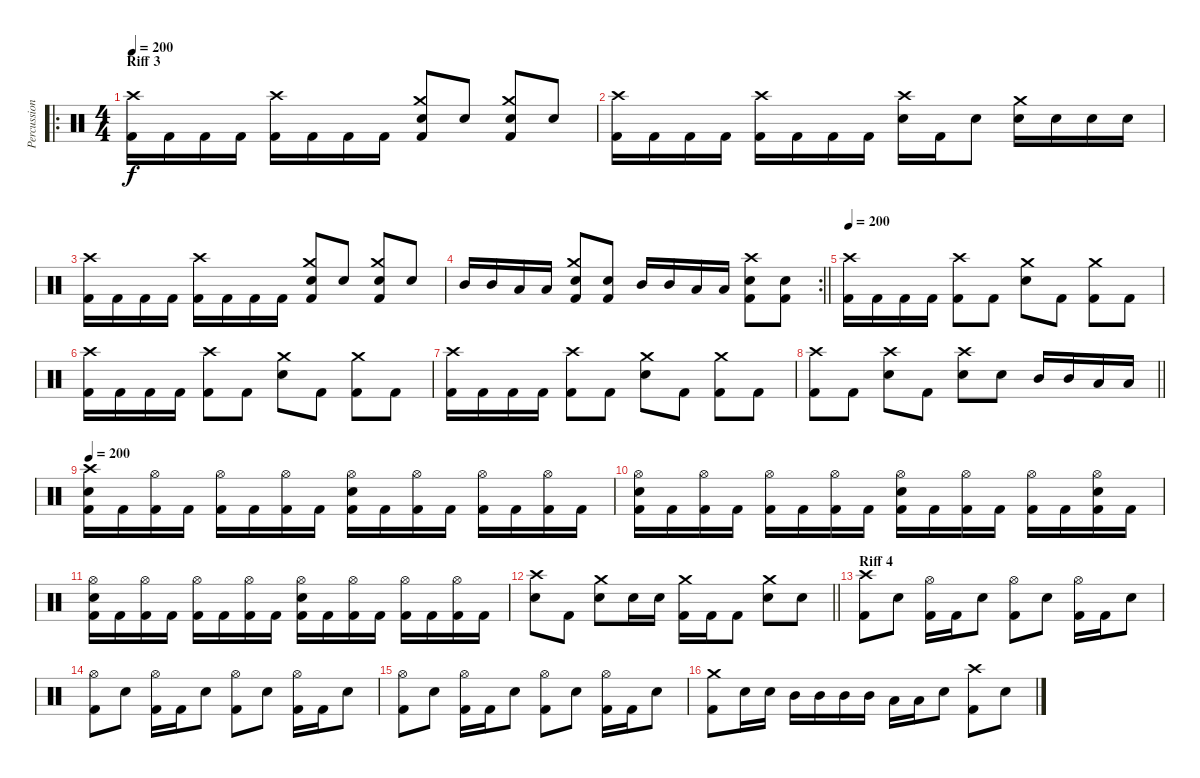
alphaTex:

\track ("Percussion" "Percussion") {instrument percussion}
\staff {score}
\articulation defaults
\ro
\ts (4 4)
\section ("" "Riff 3")
\tempo 200
\clef neutral
\ks c
("Crash high (hit)" "Kick (hit) 2").16{dy f} "Kick (hit) 2".16 "Kick (hit) 2".16 "Kick (hit) 2".16 ("Crash high (hit)" "Kick (hit) 2").16 "Kick (hit) 2".16 "Kick (hit) 2".16 "Kick (hit) 2".16 ("Crash medium (hit)" "Electric Snare (hit)" "Kick (hit) 2").8 "Electric Snare (hit)".8 ("Crash medium (hit)" "Electric Snare (hit)" "Kick (hit) 2").8 "Electric Snare (hit)".8 |
("Crash high (hit)" "Kick (hit) 2").16 "Kick (hit) 2".16 "Kick (hit) 2".16 "Kick (hit) 2".16 ("Crash high (hit)" "Kick (hit) 2").16 "Kick (hit) 2".16 "Kick (hit) 2".16 "Kick (hit) 2".16 ("Crash high (hit)" "Electric Snare (hit)").16 "Kick (hit) 2".16 "Electric Snare (hit)".8 ("Crash medium (hit)" "Electric Snare (hit)").16 "Electric Snare (hit)".16 "Electric Snare (hit)".16 "Electric Snare (hit)".16 |
("Crash high (hit)" "Kick (hit) 2").16 "Kick (hit) 2".16 "Kick (hit) 2".16 "Kick (hit) 2".16 ("Crash high (hit)" "Kick (hit) 2").16 "Kick (hit) 2".16 "Kick (hit) 2".16 "Kick (hit) 2".16 ("Crash medium (hit)" "Electric Snare (hit)" "Kick (hit) 2").8 "Electric Snare (hit)".8 ("Crash medium (hit)" "Electric Snare (hit)" "Kick (hit) 2").8 "Electric Snare (hit)".8 |
\rc 2
\barLineRight lightlight "Mid Tom (hit)".16 "Mid Tom (hit)".16 "Low Tom (hit)".16 "Low Tom (hit)".16
("Crash medium (hit)" "Electric Snare (hit)" "Kick (hit) 2").8 ("Electric Snare (hit)" "Kick (hit) 2").8 "Mid Tom (hit)".16 "Mid Tom (hit)".16 "Low Tom (hit)".16 "Low Tom (hit)".16 ("Crash high (hit)" "Electric Snare (hit)" "Kick (hit) 2").8 ("Electric Snare (hit)" "Kick (hit) 2").8 |
\tempo 200
("Crash high (hit)" "Kick (hit) 2").16 "Kick (hit) 2".16 "Kick (hit) 2".16 "Kick (hit) 2".16 ("Crash high (hit)" "Kick (hit) 2").8 "Kick (hit) 2".8 ("Crash medium (hit)" "Electric Snare (hit)").8 "Kick (hit) 2".8 ("Crash medium (hit)" "Kick (hit) 2").8 "Kick (hit) 2".8 |
("Crash high (hit)" "Kick (hit) 2").16 "Kick (hit) 2".16 "Kick (hit) 2".16 "Kick (hit) 2".16 ("Crash high (hit)" "Kick (hit) 2").8 "Kick (hit) 2".8 ("Crash medium (hit)" "Electric Snare (hit)").8 "Kick (hit) 2".8 ("Crash medium (hit)" "Kick (hit) 2").8 "Kick (hit) 2".8 |
("Crash high (hit)" "Kick (hit) 2").16 "Kick (hit) 2".16 "Kick (hit) 2".16 "Kick (hit) 2".16 ("Crash high (hit)" "Kick (hit) 2").8 "Kick (hit) 2".8 ("Crash medium (hit)" "Electric Snare (hit)").8 "Kick (hit) 2".8 ("Crash medium (hit)" "Kick (hit) 2").8 "Kick (hit) 2".8 |
\barLineRight lightlight
("Crash high (hit)" "Kick (hit) 2").8 "Kick (hit) 2".8 ("Crash high (hit)" "Electric Snare (hit)").8 "Kick (hit) 2".8 ("Crash high (hit)" "Electric Snare (hit)").8 "Electric Snare (hit)".8 "Mid Tom (hit)".16 "Mid Tom (hit)".16 "Low Tom (hit)".16 "Low Tom (hit)".16 |
\tempo 200
("Crash high (hit)" "Electric Snare (hit)" "Kick (hit) 2").16 "Kick (hit) 2".16 ("Hi-Hat (open)" "Kick (hit) 2").16 "Kick (hit) 2".16 ("Hi-Hat (open)" "Kick (hit) 2").16 "Kick (hit) 2".16 ("Hi-Hat (open)" "Kick (hit) 2").16 "Kick (hit) 2".16 ("Hi-Hat (open)" "Electric Snare (hit)" "Kick (hit) 2").16 "Kick (hit) 2".16 ("Hi-Hat (open)" "Kick (hit) 2").16 "Kick (hit) 2".16 ("Hi-Hat (open)" "Kick (hit) 2").16 "Kick (hit) 2".16 ("Hi-Hat (open)" "Kick (hit) 2").16 "Kick (hit) 2".16 |
("Hi-Hat (open)" "Electric Snare (hit)" "Kick (hit) 2").16 "Kick (hit) 2".16 ("Hi-Hat (open)" "Kick (hit) 2").16 "Kick (hit) 2".16 ("Hi-Hat (open)" "Kick (hit) 2").16 "Kick (hit) 2".16 ("Hi-Hat (open)" "Kick (hit) 2").16 "Kick (hit) 2".16 ("Hi-Hat (open)" "Electric Snare (hit)" "Kick (hit) 2").16 "Kick (hit) 2".16 ("Hi-Hat (open)" "Kick (hit) 2").16 "Kick (hit) 2".16 ("Hi-Hat (open)" "Kick (hit) 2").16 "Kick (hit) 2".16 ("Hi-Hat (open)" "Electric Snare (hit)" "Kick (hit) 2").16 "Kick (hit) 2".16 |
("Hi-Hat (open)" "Electric Snare (hit)" "Kick (hit) 2").16 "Kick (hit) 2".16 ("Hi-Hat (open)" "Kick (hit) 2").16 "Kick (hit) 2".16 ("Hi-Hat (open)" "Kick (hit) 2").16 "Kick (hit) 2".16 ("Hi-Hat (open)" "Kick (hit) 2").16 "Kick (hit) 2".16 ("Hi-Hat (open)" "Electric Snare (hit)" "Kick (hit) 2").16 "Kick (hit) 2".16 ("Hi-Hat (open)" "Kick (hit) 2").16 "Kick (hit) 2".16 ("Hi-Hat (open)" "Kick (hit) 2").16 "Kick (hit) 2".16 ("Hi-Hat (open)" "Kick (hit) 2").16 "Kick (hit) 2".16 |
\barLineRight lightlight
("Crash high (hit)" "Electric Snare (hit)").8 "Kick (hit) 2".8 ("Crash medium (hit)" "Electric Snare (hit)").8 "Electric Snare (hit)".16 "Electric Snare (hit)".16 ("Crash medium (hit)" "Kick (hit) 2").16 "Kick (hit) 2".16 "Kick (hit) 2".8 ("Crash medium (hit)" "Electric Snare (hit)").8 "Electric Snare (hit)".8 |
\section ("" "Riff 4")
("Crash high (hit)" "Kick (hit) 2").8 "Electric Snare (hit)".8 ("Hi-Hat (open)" "Kick (hit) 2").16 "Kick (hit) 2".16 "Electric Snare (hit)".8 ("Hi-Hat (open)" "Kick (hit) 2").8 "Electric Snare (hit)".8 ("Hi-Hat (open)" "Kick (hit) 2").16 "Kick (hit) 2".16 "Electric Snare (hit)".8 |
("Hi-Hat (open)" "Kick (hit) 2").8 "Electric Snare (hit)".8 ("Hi-Hat (open)" "Kick (hit) 2").16 "Kick (hit) 2".16 "Electric Snare (hit)".8 ("Hi-Hat (open)" "Kick (hit) 2").8 "Electric Snare (hit)".8 ("Hi-Hat (open)" "Kick (hit) 2").16 "Kick (hit) 2".16 "Electric Snare (hit)".8 |
("Hi-Hat (open)" "Kick (hit) 2").8 "Electric Snare (hit)".8 ("Hi-Hat (open)" "Kick (hit) 2").16 "Kick (hit) 2".16 "Electric Snare (hit)".8 ("Hi-Hat (open)" "Kick (hit) 2").8 "Electric Snare (hit)".8 ("Hi-Hat (open)" "Kick (hit) 2").16 "Kick (hit) 2".16 "Electric Snare (hit)".8 |
("Crash medium (hit)" "Kick (hit) 2").8 "Electric Snare (hit)".16 "Electric Snare (hit)".16 "Mid Tom (hit)".16 "Mid Tom (hit)".16 "Mid Tom (hit)".16 "Mid Tom (hit)".16 "Low Tom (hit)".16 "Low Tom (hit)".16 "Electric Snare (hit)".8 ("Crash high (hit)" "Kick (hit) 2").8 "Electric Snare (hit)".8
